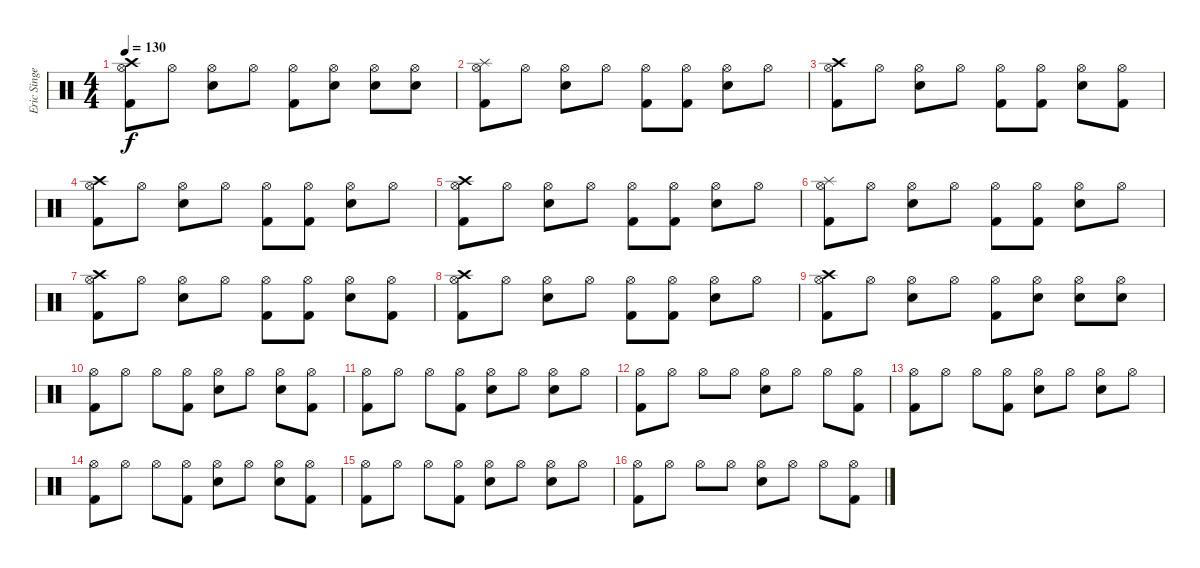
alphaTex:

\track ("Eric Singer" "Eric Singe") {instrument percussion}
\staff {score}
\articulation defaults
\ts (4 4)
\tempo 130
\clef neutral
\ks c
("Crash high (hit)" "Kick (hit) 2" "Hi-Hat (open)").8{dy f} "Hi-Hat (open)".8 ("Electric Snare (hit)" "Hi-Hat (open)").8 "Hi-Hat (open)".8 ("Kick (hit) 2" "Hi-Hat (open)").8 ("Electric Snare (hit)" "Hi-Hat (open)").8 ("Electric Snare (hit)" "Hi-Hat (open)").8 ("Electric Snare (hit)" "Hi-Hat (open)").8 |
("Splash (hit)" "Kick (hit) 2" "Hi-Hat (open)").8 "Hi-Hat (open)".8 ("Electric Snare (hit)" "Hi-Hat (open)").8 "Hi-Hat (open)".8 ("Kick (hit) 2" "Hi-Hat (open)").8 ("Kick (hit) 2" "Hi-Hat (open)").8 ("Electric Snare (hit)" "Hi-Hat (open)").8 "Hi-Hat (open)".8 |
("Crash high (hit)" "Kick (hit) 2" "Hi-Hat (open)").8 "Hi-Hat (open)".8 ("Electric Snare (hit)" "Hi-Hat (open)").8 "Hi-Hat (open)".8 ("Kick (hit) 2" "Hi-Hat (open)").8 ("Kick (hit) 2" "Hi-Hat (open)").8 ("Electric Snare (hit)" "Hi-Hat (open)").8 ("Kick (hit) 2" "Hi-Hat (open)").8 |
("Crash high (hit)" "Kick (hit) 2" "Hi-Hat (open)").8 "Hi-Hat (open)".8 ("Electric Snare (hit)" "Hi-Hat (open)").8 "Hi-Hat (open)".8 ("Kick (hit) 2" "Hi-Hat (open)").8 ("Kick (hit) 2" "Hi-Hat (open)").8 ("Electric Snare (hit)" "Hi-Hat (open)").8 "Hi-Hat (open)".8 |
("Crash high (hit)" "Kick (hit) 2" "Hi-Hat (open)").8 "Hi-Hat (open)".8 ("Electric Snare (hit)" "Hi-Hat (open)").8 "Hi-Hat (open)".8 ("Kick (hit) 2" "Hi-Hat (open)").8 ("Kick (hit) 2" "Hi-Hat (open)").8 ("Electric Snare (hit)" "Hi-Hat (open)").8 "Hi-Hat (open)".8 |
("Splash (hit)" "Kick (hit) 2" "Hi-Hat (open)").8 "Hi-Hat (open)".8 ("Electric Snare (hit)" "Hi-Hat (open)").8 "Hi-Hat (open)".8 ("Kick (hit) 2" "Hi-Hat (open)").8 ("Kick (hit) 2" "Hi-Hat (open)").8 ("Electric Snare (hit)" "Hi-Hat (open)").8 "Hi-Hat (open)".8 |
("Crash high (hit)" "Kick (hit) 2" "Hi-Hat (open)").8 "Hi-Hat (open)".8 ("Electric Snare (hit)" "Hi-Hat (open)").8 "Hi-Hat (open)".8 ("Kick (hit) 2" "Hi-Hat (open)").8 ("Kick (hit) 2" "Hi-Hat (open)").8 ("Electric Snare (hit)" "Hi-Hat (open)").8 ("Kick (hit) 2" "Hi-Hat (open)").8 |
("Crash high (hit)" "Kick (hit) 2" "Hi-Hat (open)").8 "Hi-Hat (open)".8 ("Electric Snare (hit)" "Hi-Hat (open)").8 "Hi-Hat (open)".8 ("Kick (hit) 2" "Hi-Hat (open)").8 ("Kick (hit) 2" "Hi-Hat (open)").8 ("Electric Snare (hit)" "Hi-Hat (open)").8 "Hi-Hat (open)".8 |
("Crash high (hit)" "Kick (hit) 2" "Hi-Hat (open)").8 "Hi-Hat (open)".8 ("Electric Snare (hit)" "Hi-Hat (open)").8 "Hi-Hat (open)".8 ("Kick (hit) 2" "Hi-Hat (open)").8 ("Electric Snare (hit)" "Hi-Hat (open)").8 ("Electric Snare (hit)" "Hi-Hat (open)").8 ("Electric Snare (hit)" "Hi-Hat (open)").8 |
("Kick (hit) 2" "Hi-Hat (open)").8 "Hi-Hat (open)".8 "Hi-Hat (open)".8 ("Kick (hit) 2" "Hi-Hat (open)").8 ("Electric Snare (hit)" "Hi-Hat (open)").8 "Hi-Hat (open)".8 ("Electric Snare (hit)" "Hi-Hat (open)").8 ("Kick (hit) 2" "Hi-Hat (open)").8 |
("Kick (hit) 2" "Hi-Hat (open)").8 "Hi-Hat (open)".8 "Hi-Hat (open)".8 ("Kick (hit) 2" "Hi-Hat (open)").8 ("Electric Snare (hit)" "Hi-Hat (open)").8 "Hi-Hat (open)".8 ("Electric Snare (hit)" "Hi-Hat (open)").8 "Hi-Hat (open)".8 |
("Kick (hit) 2" "Hi-Hat (open)").8 "Hi-Hat (open)".8 "Hi-Hat (open)".8 "Hi-Hat (open)".8 ("Electric Snare (hit)" "Hi-Hat (open)").8 "Hi-Hat (open)".8 "Hi-Hat (open)".8 ("Kick (hit) 2" "Hi-Hat (open)").8 |
("Kick (hit) 2" "Hi-Hat (open)").8 "Hi-Hat (open)".8 "Hi-Hat (open)".8 ("Kick (hit) 2" "Hi-Hat (open)").8 ("Electric Snare (hit)" "Hi-Hat (open)").8 "Hi-Hat (open)".8 ("Electric Snare (hit)" "Hi-Hat (open)").8 "Hi-Hat (open)".8 |
("Kick (hit) 2" "Hi-Hat (open)").8 "Hi-Hat (open)".8 "Hi-Hat (open)".8 ("Kick (hit) 2" "Hi-Hat (open)").8 ("Electric Snare (hit)" "Hi-Hat (open)").8 "Hi-Hat (open)".8 ("Electric Snare (hit)" "Hi-Hat (open)").8 ("Kick (hit) 2" "Hi-Hat (open)").8 |
("Kick (hit) 2" "Hi-Hat (open)").8 "Hi-Hat (open)".8 "Hi-Hat (open)".8 ("Kick (hit) 2" "Hi-Hat (open)").8 ("Electric Snare (hit)" "Hi-Hat (open)").8 "Hi-Hat (open)".8 ("Electric Snare (hit)" "Hi-Hat (open)").8 "Hi-Hat (open)".8 |
("Kick (hit) 2" "Hi-Hat (open)").8 "Hi-Hat (open)".8 "Hi-Hat (open)".8 "Hi-Hat (open)".8 ("Electric Snare (hit)" "Hi-Hat (open)").8 "Hi-Hat (open)".8 "Hi-Hat (open)".8 ("Kick (hit) 2" "Hi-Hat (open)").8
